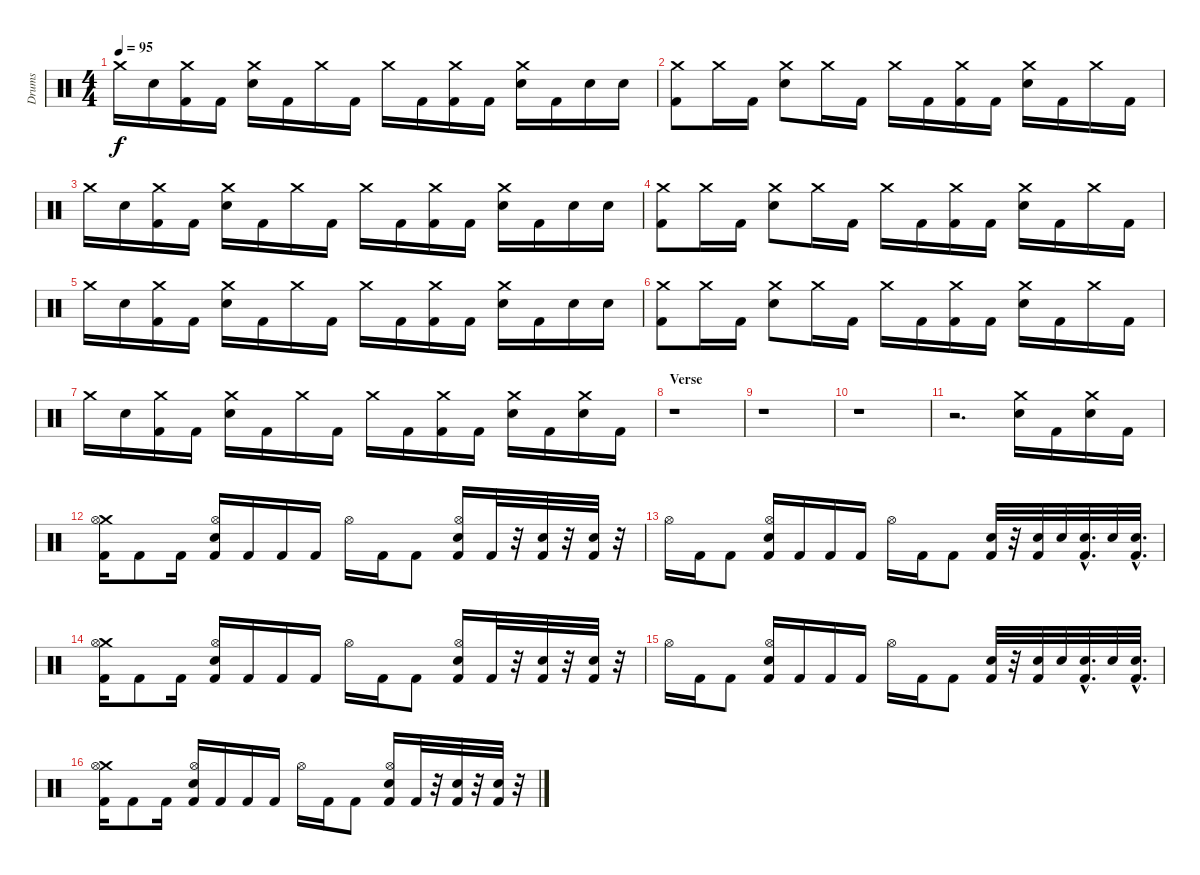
\track ("Drums" "Drums") {instrument percussion}
\staff {score}
\articulation defaults
\ts (4 4)
\tempo 95
\clef neutral
\ks c "Crash medium (hit)".16{dy f} "Electric Snare (hit)".16
("Crash medium (hit)" "Kick (hit) 2").16 "Kick (hit) 2".16 ("Crash medium (hit)" "Electric Snare (hit)").16 "Kick (hit) 2".16 "Crash medium (hit)".16 "Kick (hit) 2".16 "Crash medium (hit)".16 "Kick (hit) 2".16 ("Crash medium (hit)" "Kick (hit) 2").16 "Kick (hit) 2".16 ("Crash medium (hit)" "Electric Snare (hit)").16 "Kick (hit) 2".16 "Electric Snare (hit)".16 "Electric Snare (hit)".16 |
("Crash medium (hit)" "Kick (hit) 2").8 "Crash medium (hit)".16 "Kick (hit) 2".16 ("Crash medium (hit)" "Electric Snare (hit)").8 "Crash medium (hit)".16 "Kick (hit) 2".16 "Crash medium (hit)".16 "Kick (hit) 2".16 ("Crash medium (hit)" "Kick (hit) 2").16 "Kick (hit) 2".16 ("Crash medium (hit)" "Electric Snare (hit)").16 "Kick (hit) 2".16 "Crash medium (hit)".16 "Kick (hit) 2".16 |
"Crash medium (hit)".16 "Electric Snare (hit)".16 ("Crash medium (hit)" "Kick (hit) 2").16 "Kick (hit) 2".16 ("Crash medium (hit)" "Electric Snare (hit)").16 "Kick (hit) 2".16 "Crash medium (hit)".16 "Kick (hit) 2".16 "Crash medium (hit)".16 "Kick (hit) 2".16 ("Crash medium (hit)" "Kick (hit) 2").16 "Kick (hit) 2".16 ("Crash medium (hit)" "Electric Snare (hit)").16 "Kick (hit) 2".16 "Electric Snare (hit)".16 "Electric Snare (hit)".16 |
("Crash medium (hit)" "Kick (hit) 2").8 "Crash medium (hit)".16 "Kick (hit) 2".16 ("Crash medium (hit)" "Electric Snare (hit)").8 "Crash medium (hit)".16 "Kick (hit) 2".16 "Crash medium (hit)".16 "Kick (hit) 2".16 ("Crash medium (hit)" "Kick (hit) 2").16 "Kick (hit) 2".16 ("Crash medium (hit)" "Electric Snare (hit)").16 "Kick (hit) 2".16 "Crash medium (hit)".16 "Kick (hit) 2".16 |
"Crash medium (hit)".16 "Electric Snare (hit)".16 ("Crash medium (hit)" "Kick (hit) 2").16 "Kick (hit) 2".16 ("Crash medium (hit)" "Electric Snare (hit)").16 "Kick (hit) 2".16 "Crash medium (hit)".16 "Kick (hit) 2".16 "Crash medium (hit)".16 "Kick (hit) 2".16 ("Crash medium (hit)" "Kick (hit) 2").16 "Kick (hit) 2".16 ("Crash medium (hit)" "Electric Snare (hit)").16 "Kick (hit) 2".16 "Electric Snare (hit)".16 "Electric Snare (hit)".16 |
("Crash medium (hit)" "Kick (hit) 2").8 "Crash medium (hit)".16 "Kick (hit) 2".16 ("Crash medium (hit)" "Electric Snare (hit)").8 "Crash medium (hit)".16 "Kick (hit) 2".16 "Crash medium (hit)".16 "Kick (hit) 2".16 ("Crash medium (hit)" "Kick (hit) 2").16 "Kick (hit) 2".16 ("Crash medium (hit)" "Electric Snare (hit)").16 "Kick (hit) 2".16 "Crash medium (hit)".16 "Kick (hit) 2".16 |
"Crash medium (hit)".16 "Electric Snare (hit)".16 ("Crash medium (hit)" "Kick (hit) 2").16 "Kick (hit) 2".16 ("Crash medium (hit)" "Electric Snare (hit)").16 "Kick (hit) 2".16 "Crash medium (hit)".16 "Kick (hit) 2".16 "Crash medium (hit)".16 "Kick (hit) 2".16 ("Crash medium (hit)" "Kick (hit) 2").16 "Kick (hit) 2".16 ("Crash medium (hit)" "Electric Snare (hit)").16 "Kick (hit) 2".16 ("Crash medium (hit)" "Electric Snare (hit)").16 "Kick (hit) 2".16 |
\section ("" "Verse")
r.1 |
r.1 |
r.1 |
r.2{d} ("Crash medium (hit)" "Electric Snare (hit)").16 "Kick (hit) 2".16 ("Crash medium (hit)" "Electric Snare (hit)").16 "Kick (hit) 2".16 |
("Crash medium (hit)" "Kick (hit) 2" "Hi-Hat (open)").16 "Kick (hit) 2".8 "Kick (hit) 2".16 ("Hi-Hat (open)" "Kick (hit) 2" "Snare (hit) 2").16 "Kick (hit) 2".16 "Kick (hit) 2".16 "Kick (hit) 2".16 "Hi-Hat (open)".16 "Kick (hit) 2".16 "Kick (hit) 2".8 ("Hi-Hat (open)" "Kick (hit) 2" "Snare (hit) 2").16 "Kick (hit) 2".32 r.32 ("Kick (hit) 2" "Snare (hit) 2").32 r.32 ("Kick (hit) 2" "Snare (hit) 2").32 r.32 |
"Hi-Hat (open)".16 "Kick (hit) 2".16 "Kick (hit) 2".8 ("Hi-Hat (open)" "Kick (hit) 2" "Snare (hit) 2").16 "Kick (hit) 2".16 "Kick (hit) 2".16 "Kick (hit) 2".16 "Hi-Hat (open)".16 "Kick (hit) 2".16 "Kick (hit) 2".8 ("Kick (hit) 2" "Snare (hit) 2").32 r.32 ("Kick (hit) 2" "Snare (hit) 2").32 "Snare (hit) 2".32 ("Kick (hit) 2"{hac} "Snare (hit) 2"{hac}).32{d} "Snare (hit) 2".32 ("Kick (hit) 2"{hac} "Snare (hit) 2"{hac}).32{d} |
("Crash medium (hit)" "Kick (hit) 2" "Hi-Hat (open)").16 "Kick (hit) 2".8 "Kick (hit) 2".16 ("Hi-Hat (open)" "Kick (hit) 2" "Snare (hit) 2").16 "Kick (hit) 2".16 "Kick (hit) 2".16 "Kick (hit) 2".16 "Hi-Hat (open)".16 "Kick (hit) 2".16 "Kick (hit) 2".8 ("Hi-Hat (open)" "Kick (hit) 2" "Snare (hit) 2").16 "Kick (hit) 2".32 r.32 ("Kick (hit) 2" "Snare (hit) 2").32 r.32 ("Kick (hit) 2" "Snare (hit) 2").32 r.32 |
"Hi-Hat (open)".16 "Kick (hit) 2".16 "Kick (hit) 2".8 ("Hi-Hat (open)" "Kick (hit) 2" "Snare (hit) 2").16 "Kick (hit) 2".16 "Kick (hit) 2".16 "Kick (hit) 2".16 "Hi-Hat (open)".16 "Kick (hit) 2".16 "Kick (hit) 2".8 ("Kick (hit) 2" "Snare (hit) 2").32 r.32 ("Kick (hit) 2" "Snare (hit) 2").32 "Snare (hit) 2".32 ("Kick (hit) 2"{hac} "Snare (hit) 2"{hac}).32{d} "Snare (hit) 2".32 ("Kick (hit) 2"{hac} "Snare (hit) 2"{hac}).32{d} |
("Crash medium (hit)" "Kick (hit) 2" "Hi-Hat (open)").16 "Kick (hit) 2".8 "Kick (hit) 2".16 ("Hi-Hat (open)" "Kick (hit) 2" "Snare (hit) 2").16 "Kick (hit) 2".16 "Kick (hit) 2".16 "Kick (hit) 2".16 "Hi-Hat (open)".16 "Kick (hit) 2".16 "Kick (hit) 2".8 ("Hi-Hat (open)" "Kick (hit) 2" "Snare (hit) 2").16 "Kick (hit) 2".32 r.32 ("Kick (hit) 2" "Snare (hit) 2").32 r.32 ("Kick (hit) 2" "Snare (hit) 2").32 r.32
